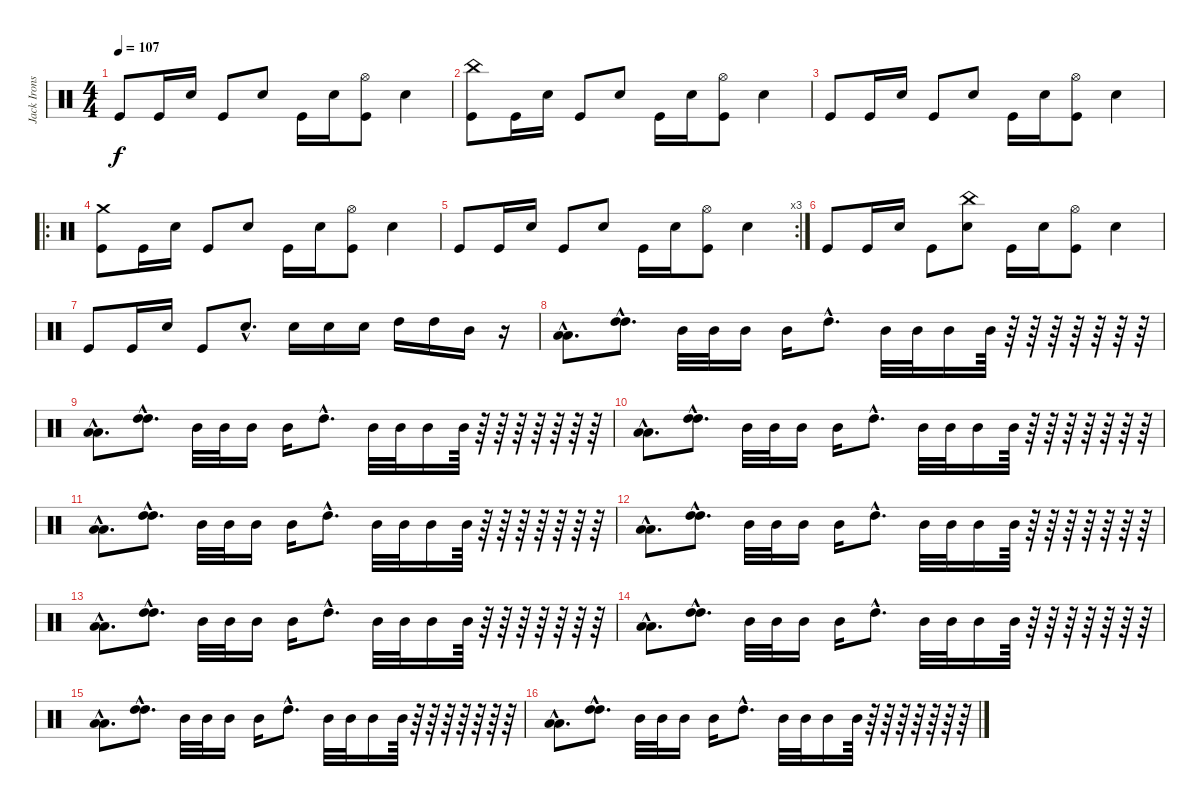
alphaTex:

\track ("Jack Irons" "Jack Irons") {instrument percussion}
\staff {score}
\articulation defaults
\ts (4 4)
\tempo 107
\clef neutral
\ks c "Kick (hit)".8{dy f} "Kick (hit)".16 "Electric Snare (hit)".16 "Kick (hit)".8 "Electric Snare (hit)".8 "Kick (hit)".16 "Electric Snare (hit)".16
("Hi-Hat (open)" "Kick (hit)").8 "Electric Snare (hit)".4 |
("China (hit)" "Kick (hit)").8 "Kick (hit)".16 "Electric Snare (hit)".16 "Kick (hit)".8 "Electric Snare (hit)".8 "Kick (hit)".16 "Electric Snare (hit)".16 ("Hi-Hat (open)" "Kick (hit)").8 "Electric Snare (hit)".4 |
"Kick (hit)".8 "Kick (hit)".16 "Electric Snare (hit)".16 "Kick (hit)".8 "Electric Snare (hit)".8 "Kick (hit)".16 "Electric Snare (hit)".16 ("Hi-Hat (open)" "Kick (hit)").8 "Electric Snare (hit)".4 |
\ro
("Crash medium (hit)" "Kick (hit)").8 "Kick (hit)".16 "Electric Snare (hit)".16 "Kick (hit)".8 "Electric Snare (hit)".8 "Kick (hit)".16 "Electric Snare (hit)".16 ("Hi-Hat (open)" "Kick (hit)").8 "Electric Snare (hit)".4 |
\rc 3 "Kick (hit)".8 "Kick (hit)".16 "Electric Snare (hit)".16 "Kick (hit)".8 "Electric Snare (hit)".8 "Kick (hit)".16 "Electric Snare (hit)".16
("Hi-Hat (open)" "Kick (hit)").8 "Electric Snare (hit)".4 |
"Kick (hit)".8 "Kick (hit)".16 "Electric Snare (hit)".16 "Kick (hit)".8 ("China (hit)" "Electric Snare (hit)").8 "Kick (hit)".16 "Electric Snare (hit)".16 ("Hi-Hat (open)" "Kick (hit)").8 "Electric Snare (hit)".4 |
"Kick (hit)".8 "Kick (hit)".16 "Electric Snare (hit)".16 "Kick (hit)".8 "Electric Snare (hit)"{hac}.8{d} "Electric Snare (hit)".16 "Electric Snare (hit)".16 "Electric Snare (hit)".16 "High Tom (hit)".16 "High Tom (hit)".16 "Mid Tom (hit)".16 r.16 |
("Low Tom (hit)"{hac} "Low Tom (hit)"{hac}).8{d} ("High Tom (hit)"{hac} "High Tom (hit)"{hac}).8{d} "Mid Tom (hit)".32 "Mid Tom (hit)".32 "Mid Tom (hit)".16 "Mid Tom (hit)".16 "High Tom (hit)"{hac}.8{d} "Mid Tom (hit)".32 "Mid Tom (hit)".32 "Mid Tom (hit)".16 "Mid Tom (hit)".64 r.64 r.64 r.64 r.64 r.64 r.64 r.64 |
("Low Tom (hit)"{hac} "Low Tom (hit)"{hac}).8{d} ("High Tom (hit)"{hac} "High Tom (hit)"{hac}).8{d} "Mid Tom (hit)".32 "Mid Tom (hit)".32 "Mid Tom (hit)".16 "Mid Tom (hit)".16 "High Tom (hit)"{hac}.8{d} "Mid Tom (hit)".32 "Mid Tom (hit)".32 "Mid Tom (hit)".16 "Mid Tom (hit)".64 r.64 r.64 r.64 r.64 r.64 r.64 r.64 |
("Low Tom (hit)"{hac} "Low Tom (hit)"{hac}).8{d} ("High Tom (hit)"{hac} "High Tom (hit)"{hac}).8{d} "Mid Tom (hit)".32 "Mid Tom (hit)".32 "Mid Tom (hit)".16 "Mid Tom (hit)".16 "High Tom (hit)"{hac}.8{d} "Mid Tom (hit)".32 "Mid Tom (hit)".32 "Mid Tom (hit)".16 "Mid Tom (hit)".64 r.64 r.64 r.64 r.64 r.64 r.64 r.64 |
("Low Tom (hit)"{hac} "Low Tom (hit)"{hac}).8{d} ("High Tom (hit)"{hac} "High Tom (hit)"{hac}).8{d} "Mid Tom (hit)".32 "Mid Tom (hit)".32 "Mid Tom (hit)".16 "Mid Tom (hit)".16 "High Tom (hit)"{hac}.8{d} "Mid Tom (hit)".32 "Mid Tom (hit)".32 "Mid Tom (hit)".16 "Mid Tom (hit)".64 r.64 r.64 r.64 r.64 r.64 r.64 r.64 |
("Low Tom (hit)"{hac} "Low Tom (hit)"{hac}).8{d} ("High Tom (hit)"{hac} "High Tom (hit)"{hac}).8{d} "Mid Tom (hit)".32 "Mid Tom (hit)".32 "Mid Tom (hit)".16 "Mid Tom (hit)".16 "High Tom (hit)"{hac}.8{d} "Mid Tom (hit)".32 "Mid Tom (hit)".32 "Mid Tom (hit)".16 "Mid Tom (hit)".64 r.64 r.64 r.64 r.64 r.64 r.64 r.64 |
("Low Tom (hit)"{hac} "Low Tom (hit)"{hac}).8{d} ("High Tom (hit)"{hac} "High Tom (hit)"{hac}).8{d} "Mid Tom (hit)".32 "Mid Tom (hit)".32 "Mid Tom (hit)".16 "Mid Tom (hit)".16 "High Tom (hit)"{hac}.8{d} "Mid Tom (hit)".32 "Mid Tom (hit)".32 "Mid Tom (hit)".16 "Mid Tom (hit)".64 r.64 r.64 r.64 r.64 r.64 r.64 r.64 |
("Low Tom (hit)"{hac} "Low Tom (hit)"{hac}).8{d} ("High Tom (hit)"{hac} "High Tom (hit)"{hac}).8{d} "Mid Tom (hit)".32 "Mid Tom (hit)".32 "Mid Tom (hit)".16 "Mid Tom (hit)".16 "High Tom (hit)"{hac}.8{d} "Mid Tom (hit)".32 "Mid Tom (hit)".32 "Mid Tom (hit)".16 "Mid Tom (hit)".64 r.64 r.64 r.64 r.64 r.64 r.64 r.64 |
("Low Tom (hit)"{hac} "Low Tom (hit)"{hac}).8{d} ("High Tom (hit)"{hac} "High Tom (hit)"{hac}).8{d} "Mid Tom (hit)".32 "Mid Tom (hit)".32 "Mid Tom (hit)".16 "Mid Tom (hit)".16 "High Tom (hit)"{hac}.8{d} "Mid Tom (hit)".32 "Mid Tom (hit)".32 "Mid Tom (hit)".16 "Mid Tom (hit)".64 r.64 r.64 r.64 r.64 r.64 r.64 r.64 |
("Low Tom (hit)"{hac} "Low Tom (hit)"{hac}).8{d} ("High Tom (hit)"{hac} "High Tom (hit)"{hac}).8{d} "Mid Tom (hit)".32 "Mid Tom (hit)".32 "Mid Tom (hit)".16 "Mid Tom (hit)".16 "High Tom (hit)"{hac}.8{d} "Mid Tom (hit)".32 "Mid Tom (hit)".32 "Mid Tom (hit)".16 "Mid Tom (hit)".64 r.64 r.64 r.64 r.64 r.64 r.64 r.64
